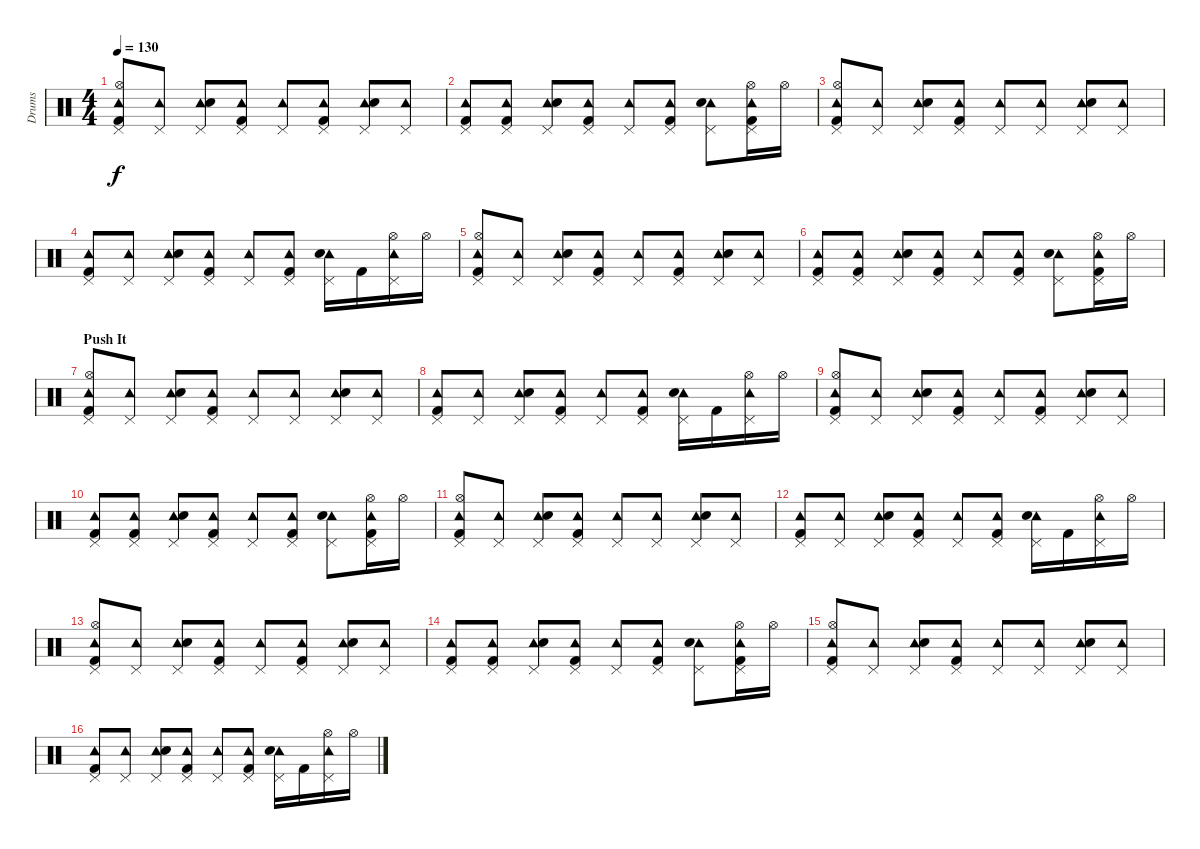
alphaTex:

\track ("Drums" "Drums") {instrument percussion}
\staff {score}
\articulation defaults
\ts (4 4)
\tempo 130
\clef neutral
\ks c
("Tambourine (hit)" "Pedal Hi-Hat (hit)" "Hi-Hat (open)" "Kick (hit) 2").8{dy f} ("Tambourine (hit)" "Pedal Hi-Hat (hit)").8 ("Tambourine (hit)" "Pedal Hi-Hat (hit)" "Electric Snare (hit)").8 ("Tambourine (hit)" "Pedal Hi-Hat (hit)" "Kick (hit) 2").8 ("Tambourine (hit)" "Pedal Hi-Hat (hit)").8 ("Tambourine (hit)" "Pedal Hi-Hat (hit)" "Kick (hit) 2").8 ("Tambourine (hit)" "Pedal Hi-Hat (hit)" "Electric Snare (hit)").8 ("Tambourine (hit)" "Pedal Hi-Hat (hit)").8 |
("Tambourine (hit)" "Pedal Hi-Hat (hit)" "Kick (hit) 2").8 ("Tambourine (hit)" "Pedal Hi-Hat (hit)" "Kick (hit) 2").8 ("Tambourine (hit)" "Pedal Hi-Hat (hit)" "Electric Snare (hit)").8 ("Tambourine (hit)" "Pedal Hi-Hat (hit)" "Kick (hit) 2").8 ("Tambourine (hit)" "Pedal Hi-Hat (hit)").8 ("Tambourine (hit)" "Pedal Hi-Hat (hit)" "Kick (hit) 2").8 ("Tambourine (hit)" "Pedal Hi-Hat (hit)" "Electric Snare (hit)").8 ("Tambourine (hit)" "Pedal Hi-Hat (hit)" "Hi-Hat (open)" "Kick (hit) 2").16 "Hi-Hat (open)".16 |
("Tambourine (hit)" "Pedal Hi-Hat (hit)" "Hi-Hat (open)" "Kick (hit) 2").8 ("Tambourine (hit)" "Pedal Hi-Hat (hit)").8 ("Tambourine (hit)" "Pedal Hi-Hat (hit)" "Electric Snare (hit)").8 ("Tambourine (hit)" "Pedal Hi-Hat (hit)" "Kick (hit) 2").8 ("Tambourine (hit)" "Pedal Hi-Hat (hit)").8 ("Tambourine (hit)" "Pedal Hi-Hat (hit)").8 ("Tambourine (hit)" "Pedal Hi-Hat (hit)" "Electric Snare (hit)").8 ("Tambourine (hit)" "Pedal Hi-Hat (hit)").8 |
("Tambourine (hit)" "Pedal Hi-Hat (hit)" "Kick (hit) 2").8 ("Tambourine (hit)" "Pedal Hi-Hat (hit)").8 ("Tambourine (hit)" "Pedal Hi-Hat (hit)" "Electric Snare (hit)").8 ("Tambourine (hit)" "Pedal Hi-Hat (hit)" "Kick (hit) 2").8 ("Tambourine (hit)" "Pedal Hi-Hat (hit)").8 ("Tambourine (hit)" "Pedal Hi-Hat (hit)" "Kick (hit) 2").8 ("Tambourine (hit)" "Pedal Hi-Hat (hit)" "Electric Snare (hit)").16 "Kick (hit) 2".16 ("Tambourine (hit)" "Pedal Hi-Hat (hit)" "Hi-Hat (open)").16 "Hi-Hat (open)".16 |
("Tambourine (hit)" "Pedal Hi-Hat (hit)" "Hi-Hat (open)" "Kick (hit) 2").8 ("Tambourine (hit)" "Pedal Hi-Hat (hit)").8 ("Tambourine (hit)" "Pedal Hi-Hat (hit)" "Electric Snare (hit)").8 ("Tambourine (hit)" "Pedal Hi-Hat (hit)" "Kick (hit) 2").8 ("Tambourine (hit)" "Pedal Hi-Hat (hit)").8 ("Tambourine (hit)" "Pedal Hi-Hat (hit)" "Kick (hit) 2").8 ("Tambourine (hit)" "Pedal Hi-Hat (hit)" "Electric Snare (hit)").8 ("Tambourine (hit)" "Pedal Hi-Hat (hit)").8 |
("Tambourine (hit)" "Pedal Hi-Hat (hit)" "Kick (hit) 2").8 ("Tambourine (hit)" "Pedal Hi-Hat (hit)" "Kick (hit) 2").8 ("Tambourine (hit)" "Pedal Hi-Hat (hit)" "Electric Snare (hit)").8 ("Tambourine (hit)" "Pedal Hi-Hat (hit)" "Kick (hit) 2").8 ("Tambourine (hit)" "Pedal Hi-Hat (hit)").8 ("Tambourine (hit)" "Pedal Hi-Hat (hit)" "Kick (hit) 2").8 ("Tambourine (hit)" "Pedal Hi-Hat (hit)" "Electric Snare (hit)").8 ("Tambourine (hit)" "Pedal Hi-Hat (hit)" "Hi-Hat (open)" "Kick (hit) 2").16 "Hi-Hat (open)".16 |
\section ("" "Push It")
("Tambourine (hit)" "Pedal Hi-Hat (hit)" "Hi-Hat (open)" "Kick (hit) 2").8 ("Tambourine (hit)" "Pedal Hi-Hat (hit)").8 ("Tambourine (hit)" "Pedal Hi-Hat (hit)" "Electric Snare (hit)").8 ("Tambourine (hit)" "Pedal Hi-Hat (hit)" "Kick (hit) 2").8 ("Tambourine (hit)" "Pedal Hi-Hat (hit)").8 ("Tambourine (hit)" "Pedal Hi-Hat (hit)").8 ("Tambourine (hit)" "Pedal Hi-Hat (hit)" "Electric Snare (hit)").8 ("Tambourine (hit)" "Pedal Hi-Hat (hit)").8 |
("Tambourine (hit)" "Pedal Hi-Hat (hit)" "Kick (hit) 2").8 ("Tambourine (hit)" "Pedal Hi-Hat (hit)").8 ("Tambourine (hit)" "Pedal Hi-Hat (hit)" "Electric Snare (hit)").8 ("Tambourine (hit)" "Pedal Hi-Hat (hit)" "Kick (hit) 2").8 ("Tambourine (hit)" "Pedal Hi-Hat (hit)").8 ("Tambourine (hit)" "Pedal Hi-Hat (hit)" "Kick (hit) 2").8 ("Tambourine (hit)" "Pedal Hi-Hat (hit)" "Electric Snare (hit)").16 "Kick (hit) 2".16 ("Tambourine (hit)" "Pedal Hi-Hat (hit)" "Hi-Hat (open)").16 "Hi-Hat (open)".16 |
("Tambourine (hit)" "Pedal Hi-Hat (hit)" "Hi-Hat (open)" "Kick (hit) 2").8 ("Tambourine (hit)" "Pedal Hi-Hat (hit)").8 ("Tambourine (hit)" "Pedal Hi-Hat (hit)" "Electric Snare (hit)").8 ("Tambourine (hit)" "Pedal Hi-Hat (hit)" "Kick (hit) 2").8 ("Tambourine (hit)" "Pedal Hi-Hat (hit)").8 ("Tambourine (hit)" "Pedal Hi-Hat (hit)" "Kick (hit) 2").8 ("Tambourine (hit)" "Pedal Hi-Hat (hit)" "Electric Snare (hit)").8 ("Tambourine (hit)" "Pedal Hi-Hat (hit)").8 |
("Tambourine (hit)" "Pedal Hi-Hat (hit)" "Kick (hit) 2").8 ("Tambourine (hit)" "Pedal Hi-Hat (hit)" "Kick (hit) 2").8 ("Tambourine (hit)" "Pedal Hi-Hat (hit)" "Electric Snare (hit)").8 ("Tambourine (hit)" "Pedal Hi-Hat (hit)" "Kick (hit) 2").8 ("Tambourine (hit)" "Pedal Hi-Hat (hit)").8 ("Tambourine (hit)" "Pedal Hi-Hat (hit)" "Kick (hit) 2").8 ("Tambourine (hit)" "Pedal Hi-Hat (hit)" "Electric Snare (hit)").8 ("Tambourine (hit)" "Pedal Hi-Hat (hit)" "Hi-Hat (open)" "Kick (hit) 2").16 "Hi-Hat (open)".16 |
("Tambourine (hit)" "Pedal Hi-Hat (hit)" "Hi-Hat (open)" "Kick (hit) 2").8 ("Tambourine (hit)" "Pedal Hi-Hat (hit)").8 ("Tambourine (hit)" "Pedal Hi-Hat (hit)" "Electric Snare (hit)").8 ("Tambourine (hit)" "Pedal Hi-Hat (hit)" "Kick (hit) 2").8 ("Tambourine (hit)" "Pedal Hi-Hat (hit)").8 ("Tambourine (hit)" "Pedal Hi-Hat (hit)").8 ("Tambourine (hit)" "Pedal Hi-Hat (hit)" "Electric Snare (hit)").8 ("Tambourine (hit)" "Pedal Hi-Hat (hit)").8 |
("Tambourine (hit)" "Pedal Hi-Hat (hit)" "Kick (hit) 2").8 ("Tambourine (hit)" "Pedal Hi-Hat (hit)").8 ("Tambourine (hit)" "Pedal Hi-Hat (hit)" "Electric Snare (hit)").8 ("Tambourine (hit)" "Pedal Hi-Hat (hit)" "Kick (hit) 2").8 ("Tambourine (hit)" "Pedal Hi-Hat (hit)").8 ("Tambourine (hit)" "Pedal Hi-Hat (hit)" "Kick (hit) 2").8 ("Tambourine (hit)" "Pedal Hi-Hat (hit)" "Electric Snare (hit)").16 "Kick (hit) 2".16 ("Tambourine (hit)" "Pedal Hi-Hat (hit)" "Hi-Hat (open)").16 "Hi-Hat (open)".16 |
("Tambourine (hit)" "Pedal Hi-Hat (hit)" "Hi-Hat (open)" "Kick (hit) 2").8 ("Tambourine (hit)" "Pedal Hi-Hat (hit)").8 ("Tambourine (hit)" "Pedal Hi-Hat (hit)" "Electric Snare (hit)").8 ("Tambourine (hit)" "Pedal Hi-Hat (hit)" "Kick (hit) 2").8 ("Tambourine (hit)" "Pedal Hi-Hat (hit)").8 ("Tambourine (hit)" "Pedal Hi-Hat (hit)" "Kick (hit) 2").8 ("Tambourine (hit)" "Pedal Hi-Hat (hit)" "Electric Snare (hit)").8 ("Tambourine (hit)" "Pedal Hi-Hat (hit)").8 |
("Tambourine (hit)" "Pedal Hi-Hat (hit)" "Kick (hit) 2").8 ("Tambourine (hit)" "Pedal Hi-Hat (hit)" "Kick (hit) 2").8 ("Tambourine (hit)" "Pedal Hi-Hat (hit)" "Electric Snare (hit)").8 ("Tambourine (hit)" "Pedal Hi-Hat (hit)" "Kick (hit) 2").8 ("Tambourine (hit)" "Pedal Hi-Hat (hit)").8 ("Tambourine (hit)" "Pedal Hi-Hat (hit)" "Kick (hit) 2").8 ("Tambourine (hit)" "Pedal Hi-Hat (hit)" "Electric Snare (hit)").8 ("Tambourine (hit)" "Pedal Hi-Hat (hit)" "Hi-Hat (open)" "Kick (hit) 2").16 "Hi-Hat (open)".16 |
("Tambourine (hit)" "Pedal Hi-Hat (hit)" "Hi-Hat (open)" "Kick (hit) 2").8 ("Tambourine (hit)" "Pedal Hi-Hat (hit)").8 ("Tambourine (hit)" "Pedal Hi-Hat (hit)" "Electric Snare (hit)").8 ("Tambourine (hit)" "Pedal Hi-Hat (hit)" "Kick (hit) 2").8 ("Tambourine (hit)" "Pedal Hi-Hat (hit)").8 ("Tambourine (hit)" "Pedal Hi-Hat (hit)").8 ("Tambourine (hit)" "Pedal Hi-Hat (hit)" "Electric Snare (hit)").8 ("Tambourine (hit)" "Pedal Hi-Hat (hit)").8 |
("Tambourine (hit)" "Pedal Hi-Hat (hit)" "Kick (hit) 2").8 ("Tambourine (hit)" "Pedal Hi-Hat (hit)").8 ("Tambourine (hit)" "Pedal Hi-Hat (hit)" "Electric Snare (hit)").8 ("Tambourine (hit)" "Pedal Hi-Hat (hit)" "Kick (hit) 2").8 ("Tambourine (hit)" "Pedal Hi-Hat (hit)").8 ("Tambourine (hit)" "Pedal Hi-Hat (hit)" "Kick (hit) 2").8 ("Tambourine (hit)" "Pedal Hi-Hat (hit)" "Electric Snare (hit)").16 "Kick (hit) 2".16 ("Tambourine (hit)" "Pedal Hi-Hat (hit)" "Hi-Hat (open)").16 "Hi-Hat (open)".16
